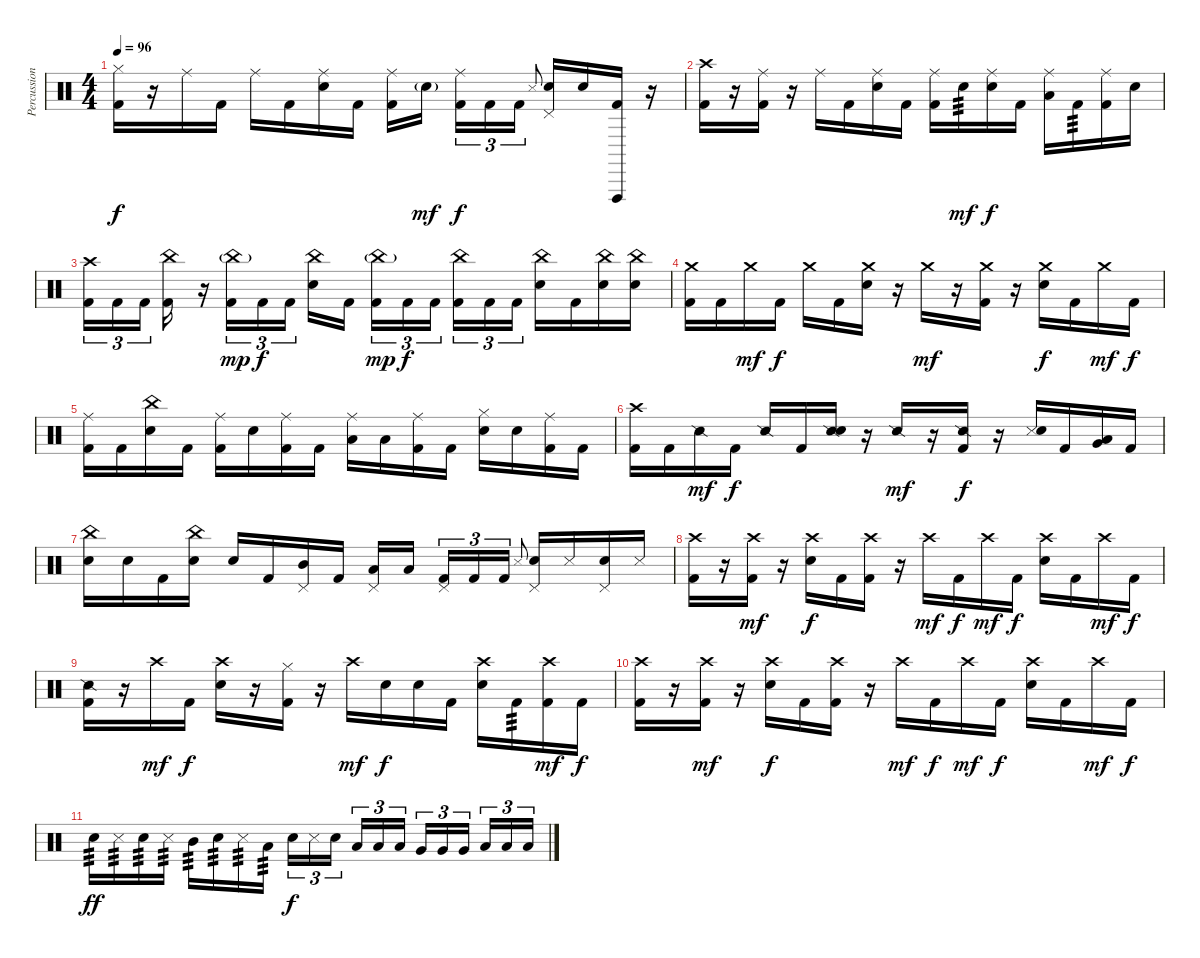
\track ("Percussion" "Percussion") {instrument percussion}
\staff {score}
\articulation defaults
\ts (4 4)
\tempo 96
\clef neutral
\ks c
("Hi-Hat (closed)" "Kick (hit) 2").16{dy f} r.16 "Ride (middle)".16 "Kick (hit) 2".16 "Ride (middle)".16 "Kick (hit) 2".16 ("Ride (middle)" "Snare (hit) 2").16 "Kick (hit) 2".16 ("Ride (middle)" "Kick (hit) 2").16 "Snare (hit) 2"{g}.16{dy mf beam splitsecondary} ("Ride (middle)" "Kick (hit) 2").16{tu (3 2) dy f} "Kick (hit) 2".16{tu (3 2)} "Kick (hit) 2".16{tu (3 2)} "Metronome (hit)".8{gr onbeat} ("Pedal Hi-Hat (hit)" "Snare (hit) 2").16 "Snare (hit) 2".16 ("Vibraslap (hit)" "Kick (hit) 2").16 r.16 |
("Crash high (hit)" "Kick (hit) 2").16 r.16 ("Ride (middle)" "Kick (hit) 2").16 r.16 "Ride (middle)".16 "Kick (hit) 2".16 ("Ride (middle)" "Snare (hit) 2").16 "Kick (hit) 2".16 ("Ride (middle)" "Kick (hit) 2").16 "Snare (hit) 2".16{tp 3 dy mf} ("Ride (middle)" "Snare (hit) 2").16{dy f} "Kick (hit) 2".16 ("Ride (middle)" "Low Tom (hit)").16 "Kick (hit) 2".16{tp 3} ("Ride (middle)" "Kick (hit) 2").16 "Snare (hit) 2".16 |
("Crash high (hit)" "Kick (hit) 2").16{tu (3 2)} "Kick (hit) 2".16{tu (3 2)} "Kick (hit) 2".16{tu (3 2) beam splitsecondary} ("China (hit)" "Kick (hit) 2").16 r.16 ("China (hit)"{g} "Kick (hit) 2").16{tu (3 2) dy mp} "Kick (hit) 2".16{tu (3 2) dy f} "Kick (hit) 2".16{tu (3 2) beam splitsecondary} ("China (hit)" "Snare (hit) 2").16 "Kick (hit) 2".16 ("China (hit)"{g} "Kick (hit) 2").16{tu (3 2) dy mp} "Kick (hit) 2".16{tu (3 2) dy f} "Kick (hit) 2".16{tu (3 2) beam splitsecondary} ("China (hit)" "Kick (hit) 2").16{tu (3 2)} "Kick (hit) 2".16{tu (3 2)} "Kick (hit) 2".16{tu (3 2)} ("China (hit)" "Snare (hit) 2").16 "Kick (hit) 2".16 ("China (hit)" "Snare (hit) 2").16 ("China (hit)" "Snare (hit) 2").16 |
("Crash medium (hit)" "Kick (hit) 2").16 "Kick (hit) 2".16 "Crash medium (hit)".16{dy mf} "Kick (hit) 2".16{dy f} "Crash medium (hit)".16 "Kick (hit) 2".16 ("Crash medium (hit)" "Snare (hit) 2").16 r.16 "Crash medium (hit)".16{dy mf} r.16 ("Crash medium (hit)" "Kick (hit) 2").16 r.16 ("Crash medium (hit)" "Snare (hit) 2").16{dy f} "Kick (hit) 2".16 "Crash medium (hit)".16{dy mf} "Kick (hit) 2".16{dy f} |
("Ride (middle)" "Kick (hit) 2").16 "Kick (hit) 2".16 ("China (hit)" "Snare (hit) 2").16 "Kick (hit) 2".16 ("Ride (middle)" "Kick (hit) 2").16 "Snare (hit) 2".16 ("Ride (middle)" "Kick (hit) 2").16 "Kick (hit) 2".16 ("Ride (middle)" "Low Tom (hit)").16 "Low Tom (hit)".16 ("Ride (middle)" "Kick (hit) 2").16 "Kick (hit) 2".16 ("Hi-Hat (closed)" "Snare (hit) 2").16 "Snare (hit) 2".16 ("Ride (middle)" "Kick (hit) 2").16 "Kick (hit) 2".16 |
("Crash high (hit)" "Kick (hit) 2").16 "Kick (hit) 2".16 "Snare (side stick) 2".16{dy mf} "Kick (hit) 2".16{dy f} "Snare (side stick) 2".16 "Kick (hit) 2".16 ("Snare (side stick) 2" "Snare (hit) 2").16 r.16 "Snare (side stick) 2".16{dy mf} r.16 ("Snare (side stick) 2" "Kick (hit) 2").16{dy f} r.16 ("Metronome (hit)" "Snare (hit) 2").16{bu 60} "Kick (hit) 2".16 ("Low Tom (hit)" "Very Low Tom (hit)").16{bu 60} "Kick (hit) 2".16 |
("China (hit)" "Snare (hit) 2").16 "Snare (hit) 2".16 "Kick (hit) 2".16 ("China (hit)" "Snare (hit) 2").16 "Snare (hit) 2".16 "Kick (hit) 2".16 ("Pedal Hi-Hat (hit)" "Mid Tom (hit)").16 "Kick (hit) 2".16 ("Pedal Hi-Hat (hit)" "Low Tom (hit)").16 "Low Tom (hit)".16{beam splitsecondary} ("Pedal Hi-Hat (hit)" "Kick (hit) 2").16{tu (3 2)} "Kick (hit) 2".16{tu (3 2)} "Kick (hit) 2".16{tu (3 2)} "Metronome (hit)".8{gr onbeat} ("Pedal Hi-Hat (hit)" "Snare (hit) 2").16 "Metronome (hit)".16 ("Pedal Hi-Hat (hit)" "Snare (hit) 2").16 "Metronome (hit)".16 |
("Crash high (hit)" "Kick (hit) 2").16 r.16 ("Crash high (hit)" "Kick (hit) 2").16{dy mf} r.16 ("Crash high (hit)" "Snare (hit) 2").16{dy f} "Kick (hit) 2".16 ("Crash high (hit)" "Kick (hit) 2").16 r.16 "Crash high (hit)".16{dy mf} "Kick (hit) 2".16{dy f} "Crash high (hit)".16{dy mf} "Kick (hit) 2".16{dy f} ("Crash high (hit)" "Snare (hit) 2").16 "Kick (hit) 2".16 "Crash high (hit)".16{dy mf} "Kick (hit) 2".16{dy f} |
("Snare (side stick) 2" "Kick (hit) 2").16 r.16 "Crash high (hit)".16{dy mf} "Kick (hit) 2".16{dy f} ("Crash high (hit)" "Snare (hit) 2").16 r.16 ("Hi-Hat (closed)" "Kick (hit) 2").16 r.16 "Crash high (hit)".16{dy mf} "Snare (hit) 2".16{dy f} "Snare (hit)".16 "Kick (hit) 2".16 ("Crash high (hit)" "Snare (hit) 2").16 "Kick (hit) 2".16{tp 3} ("Crash high (hit)" "Kick (hit) 2").16{dy mf} "Kick (hit) 2".16{dy f} |
("Crash high (hit)" "Kick (hit) 2").16 r.16 ("Crash high (hit)" "Kick (hit) 2").16{dy mf} r.16 ("Crash high (hit)" "Snare (hit) 2").16{dy f} "Kick (hit) 2".16 ("Crash high (hit)" "Kick (hit) 2").16 r.16 "Crash high (hit)".16{dy mf} "Kick (hit) 2".16{dy f} "Crash high (hit)".16{dy mf} "Kick (hit) 2".16{dy f} ("Crash high (hit)" "Snare (hit) 2").16 "Kick (hit) 2".16 "Crash high (hit)".16{dy mf} "Kick (hit) 2".16{dy f} |
"Snare (hit) 2".16{tp 3 dy ff} "Metronome (hit)".16{tp 3} "Snare (hit) 2".16{tp 3} "Metronome (hit)".16{tp 3} "Mid Tom (hit)".16{tp 3} "Snare (hit) 2".16{tp 3} "Metronome (hit)".16{tp 3} "Low Tom (hit)".16{tp 3} "Snare (hit) 2".16{tu (3 2) dy f} "Metronome (hit)".16{tu (3 2)} "Snare (hit) 2".16{tu (3 2) beam splitsecondary} "Low Tom (hit)".16{tu (3 2)} "Low Tom (hit)".16{tu (3 2)} "Low Tom (hit)".16{tu (3 2)} "Very Low Tom (hit)".16{tu (3 2)} "Very Low Tom (hit)".16{tu (3 2)} "Very Low Tom (hit)".16{tu (3 2) beam splitsecondary} "Low Floor Tom (hit)".16{tu (3 2)} "Low Floor Tom (hit)".16{tu (3 2)} "Low Floor Tom (hit)".16{tu (3 2)}
